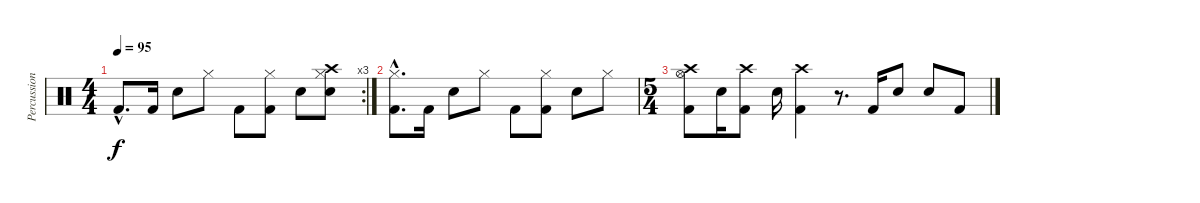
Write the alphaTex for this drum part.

\track ("Percussioni" "Percussion") {instrument percussion}
\staff {score}
\articulation defaults
\rc 3
\ts (4 4)
\tempo 95
\clef neutral
\ks c "Kick (hit) 2"{hac}.8{d dy f} "Kick (hit) 2".16 "Snare (hit) 2".8 "Hi-Hat (closed)".8 "Kick (hit) 2".8
("Hi-Hat (closed)" "Kick (hit) 2").8 "Snare (hit) 2".8 ("Hi-Hat (closed)" "Crash high (hit)" "Snare (hit) 2").8 |
("Hi-Hat (closed)"{hac} "Kick (hit) 2"{hac}).8{d} "Kick (hit) 2".16 "Snare (hit) 2".8 "Hi-Hat (closed)".8 "Kick (hit) 2".8 ("Hi-Hat (closed)" "Kick (hit) 2").8 "Snare (hit) 2".8 "Hi-Hat (closed)".8 |
\ts (5 4)
("Hi-Hat (open)" "Crash high (hit)" "Kick (hit) 2").8 "Snare (hit) 2".16 ("Crash high (hit)" "Kick (hit) 2").8 "Snare (hit) 2".16 ("Crash high (hit)" "Kick (hit) 2").4 r.8{d} "Kick (hit) 2".16 "Snare (hit) 2".8 "Snare (hit) 2".8 "Kick (hit) 2".8
